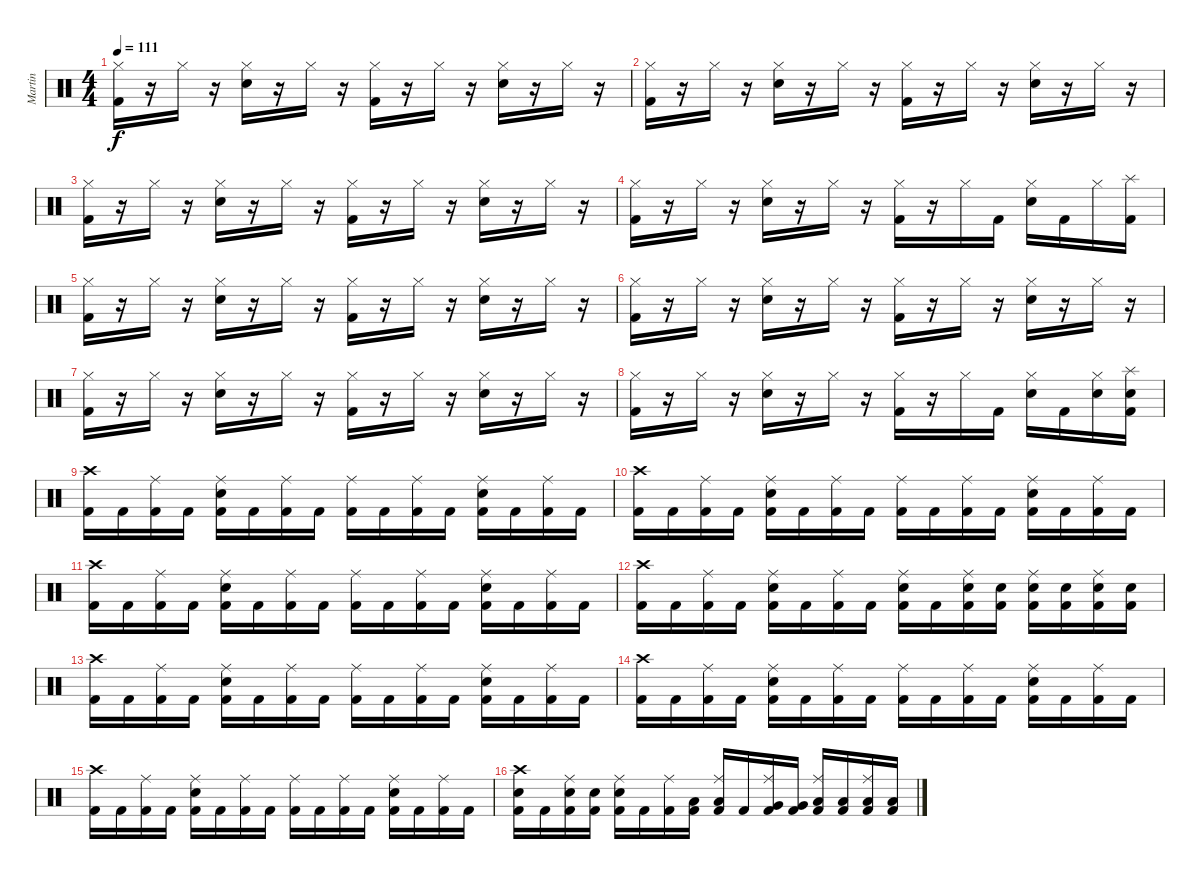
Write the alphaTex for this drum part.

\track ("Martin" "Martin") {instrument percussion}
\staff {score}
\articulation defaults
\ts (4 4)
\tempo 111
\clef neutral
\ks c
("Kick (hit) 2" "Hi-Hat (closed)").16{dy f} r.16 "Hi-Hat (closed)".16 r.16 ("Electric Snare (hit)" "Hi-Hat (closed)").16 r.16 "Hi-Hat (closed)".16 r.16 ("Kick (hit) 2" "Hi-Hat (closed)").16 r.16 "Hi-Hat (closed)".16 r.16 ("Electric Snare (hit)" "Hi-Hat (closed)").16 r.16 "Hi-Hat (closed)".16 r.16 |
("Kick (hit) 2" "Hi-Hat (closed)").16 r.16 "Hi-Hat (closed)".16 r.16 ("Electric Snare (hit)" "Hi-Hat (closed)").16 r.16 "Hi-Hat (closed)".16 r.16 ("Kick (hit) 2" "Hi-Hat (closed)").16 r.16 "Hi-Hat (closed)".16 r.16 ("Electric Snare (hit)" "Hi-Hat (closed)").16 r.16 "Hi-Hat (closed)".16 r.16 |
("Kick (hit) 2" "Hi-Hat (closed)").16 r.16 "Hi-Hat (closed)".16 r.16 ("Electric Snare (hit)" "Hi-Hat (closed)").16 r.16 "Hi-Hat (closed)".16 r.16 ("Kick (hit) 2" "Hi-Hat (closed)").16 r.16 "Hi-Hat (closed)".16 r.16 ("Electric Snare (hit)" "Hi-Hat (closed)").16 r.16 "Hi-Hat (closed)".16 r.16 |
("Kick (hit) 2" "Hi-Hat (closed)").16 r.16 "Hi-Hat (closed)".16 r.16 ("Electric Snare (hit)" "Hi-Hat (closed)").16 r.16 "Hi-Hat (closed)".16 r.16 ("Kick (hit) 2" "Hi-Hat (closed)").16 r.16 "Hi-Hat (closed)".16 "Kick (hit) 2".16 ("Electric Snare (hit)" "Hi-Hat (closed)").16 "Kick (hit) 2".16 "Hi-Hat (closed)".16 ("Kick (hit) 2" "Splash (hit)").16 |
("Kick (hit) 2" "Hi-Hat (closed)").16 r.16 "Hi-Hat (closed)".16 r.16 ("Electric Snare (hit)" "Hi-Hat (closed)").16 r.16 "Hi-Hat (closed)".16 r.16 ("Kick (hit) 2" "Hi-Hat (closed)").16 r.16 "Hi-Hat (closed)".16 r.16 ("Electric Snare (hit)" "Hi-Hat (closed)").16 r.16 "Hi-Hat (closed)".16 r.16 |
("Kick (hit) 2" "Hi-Hat (closed)").16 r.16 "Hi-Hat (closed)".16 r.16 ("Electric Snare (hit)" "Hi-Hat (closed)").16 r.16 "Hi-Hat (closed)".16 r.16 ("Kick (hit) 2" "Hi-Hat (closed)").16 r.16 "Hi-Hat (closed)".16 r.16 ("Electric Snare (hit)" "Hi-Hat (closed)").16 r.16 "Hi-Hat (closed)".16 r.16 |
("Kick (hit) 2" "Hi-Hat (closed)").16 r.16 "Hi-Hat (closed)".16 r.16 ("Electric Snare (hit)" "Hi-Hat (closed)").16 r.16 "Hi-Hat (closed)".16 r.16 ("Kick (hit) 2" "Hi-Hat (closed)").16 r.16 "Hi-Hat (closed)".16 r.16 ("Electric Snare (hit)" "Hi-Hat (closed)").16 r.16 "Hi-Hat (closed)".16 r.16 |
("Kick (hit) 2" "Hi-Hat (closed)").16 r.16 "Hi-Hat (closed)".16 r.16 ("Electric Snare (hit)" "Hi-Hat (closed)").16 r.16 "Hi-Hat (closed)".16 r.16 ("Kick (hit) 2" "Hi-Hat (closed)").16 r.16 "Hi-Hat (closed)".16 "Kick (hit) 2".16 ("Electric Snare (hit)" "Hi-Hat (closed)").16 "Kick (hit) 2".16 ("Electric Snare (hit)" "Hi-Hat (closed)").16 ("Kick (hit) 2" "Electric Snare (hit)" "Splash (hit)").16 |
("Kick (hit) 2" "Crash high (hit)").16 "Kick (hit) 2".16 ("Kick (hit) 2" "Ride (middle)").16 "Kick (hit) 2".16 ("Kick (hit) 2" "Electric Snare (hit)" "Ride (middle)").16 "Kick (hit) 2".16 ("Kick (hit) 2" "Ride (middle)").16 "Kick (hit) 2".16 ("Kick (hit) 2" "Ride (middle)").16 "Kick (hit) 2".16 ("Kick (hit) 2" "Ride (middle)").16 "Kick (hit) 2".16 ("Kick (hit) 2" "Electric Snare (hit)" "Ride (middle)").16 "Kick (hit) 2".16 ("Kick (hit) 2" "Ride (middle)").16 "Kick (hit) 2".16 |
("Kick (hit) 2" "Crash high (hit)").16 "Kick (hit) 2".16 ("Kick (hit) 2" "Ride (middle)").16 "Kick (hit) 2".16 ("Kick (hit) 2" "Electric Snare (hit)" "Ride (middle)").16 "Kick (hit) 2".16 ("Kick (hit) 2" "Ride (middle)").16 "Kick (hit) 2".16 ("Kick (hit) 2" "Ride (middle)").16 "Kick (hit) 2".16 ("Kick (hit) 2" "Ride (middle)").16 "Kick (hit) 2".16 ("Kick (hit) 2" "Electric Snare (hit)" "Ride (middle)").16 "Kick (hit) 2".16 ("Kick (hit) 2" "Ride (middle)").16 "Kick (hit) 2".16 |
("Kick (hit) 2" "Crash high (hit)").16 "Kick (hit) 2".16 ("Kick (hit) 2" "Ride (middle)").16 "Kick (hit) 2".16 ("Kick (hit) 2" "Electric Snare (hit)" "Ride (middle)").16 "Kick (hit) 2".16 ("Kick (hit) 2" "Ride (middle)").16 "Kick (hit) 2".16 ("Kick (hit) 2" "Ride (middle)").16 "Kick (hit) 2".16 ("Kick (hit) 2" "Ride (middle)").16 "Kick (hit) 2".16 ("Kick (hit) 2" "Electric Snare (hit)" "Ride (middle)").16 "Kick (hit) 2".16 ("Kick (hit) 2" "Ride (middle)").16 "Kick (hit) 2".16 |
("Kick (hit) 2" "Crash high (hit)").16 "Kick (hit) 2".16 ("Kick (hit) 2" "Ride (middle)").16 "Kick (hit) 2".16 ("Kick (hit) 2" "Electric Snare (hit)" "Ride (middle)").16 "Kick (hit) 2".16 ("Kick (hit) 2" "Ride (middle)").16 "Kick (hit) 2".16 ("Kick (hit) 2" "Electric Snare (hit)" "Ride (middle)").16 "Kick (hit) 2".16 ("Kick (hit) 2" "Electric Snare (hit)" "Ride (middle)").16 ("Kick (hit) 2" "Electric Snare (hit)").16 ("Kick (hit) 2" "Electric Snare (hit)" "Ride (middle)").16 ("Kick (hit) 2" "Electric Snare (hit)").16 ("Kick (hit) 2" "Electric Snare (hit)" "Ride (middle)").16 ("Kick (hit) 2" "Electric Snare (hit)").16 |
("Kick (hit) 2" "Crash high (hit)").16 "Kick (hit) 2".16 ("Kick (hit) 2" "Ride (middle)").16 "Kick (hit) 2".16 ("Kick (hit) 2" "Electric Snare (hit)" "Ride (middle)").16 "Kick (hit) 2".16 ("Kick (hit) 2" "Ride (middle)").16 "Kick (hit) 2".16 ("Kick (hit) 2" "Ride (middle)").16 "Kick (hit) 2".16 ("Kick (hit) 2" "Ride (middle)").16 "Kick (hit) 2".16 ("Kick (hit) 2" "Electric Snare (hit)" "Ride (middle)").16 "Kick (hit) 2".16 ("Kick (hit) 2" "Ride (middle)").16 "Kick (hit) 2".16 |
("Kick (hit) 2" "Crash high (hit)").16 "Kick (hit) 2".16 ("Kick (hit) 2" "Ride (middle)").16 "Kick (hit) 2".16 ("Kick (hit) 2" "Electric Snare (hit)" "Ride (middle)").16 "Kick (hit) 2".16 ("Kick (hit) 2" "Ride (middle)").16 "Kick (hit) 2".16 ("Kick (hit) 2" "Ride (middle)").16 "Kick (hit) 2".16 ("Kick (hit) 2" "Ride (middle)").16 "Kick (hit) 2".16 ("Kick (hit) 2" "Electric Snare (hit)" "Ride (middle)").16 "Kick (hit) 2".16 ("Kick (hit) 2" "Ride (middle)").16 "Kick (hit) 2".16 |
("Kick (hit) 2" "Crash high (hit)").16 "Kick (hit) 2".16 ("Kick (hit) 2" "Ride (middle)").16 "Kick (hit) 2".16 ("Kick (hit) 2" "Electric Snare (hit)" "Ride (middle)").16 "Kick (hit) 2".16 ("Kick (hit) 2" "Ride (middle)").16 "Kick (hit) 2".16 ("Kick (hit) 2" "Ride (middle)").16 "Kick (hit) 2".16 ("Kick (hit) 2" "Ride (middle)").16 "Kick (hit) 2".16 ("Kick (hit) 2" "Electric Snare (hit)" "Ride (middle)").16 "Kick (hit) 2".16 ("Kick (hit) 2" "Ride (middle)").16 "Kick (hit) 2".16 |
("Kick (hit) 2" "Electric Snare (hit)" "Crash high (hit)").16 "Kick (hit) 2".16 ("Kick (hit) 2" "Electric Snare (hit)" "Ride (middle)").16 ("Kick (hit) 2" "Electric Snare (hit)").16 ("Kick (hit) 2" "Electric Snare (hit)" "Ride (middle)").16 "Kick (hit) 2".16 ("Kick (hit) 2" "Ride (middle)").16 ("Kick (hit) 2" "Low Tom (hit)").16 ("Kick (hit) 2" "Low Tom (hit)" "Ride (middle)").16 "Kick (hit) 2".16 ("Kick (hit) 2" "Very Low Tom (hit)" "Ride (middle)").16 ("Kick (hit) 2" "Very Low Tom (hit)").16 ("Kick (hit) 2" "Low Floor Tom (hit)" "Ride (middle)").16 ("Kick (hit) 2" "Low Floor Tom (hit)").16 ("Kick (hit) 2" "Low Floor Tom (hit)" "Ride (middle)").16 ("Kick (hit) 2" "Low Floor Tom (hit)").16
